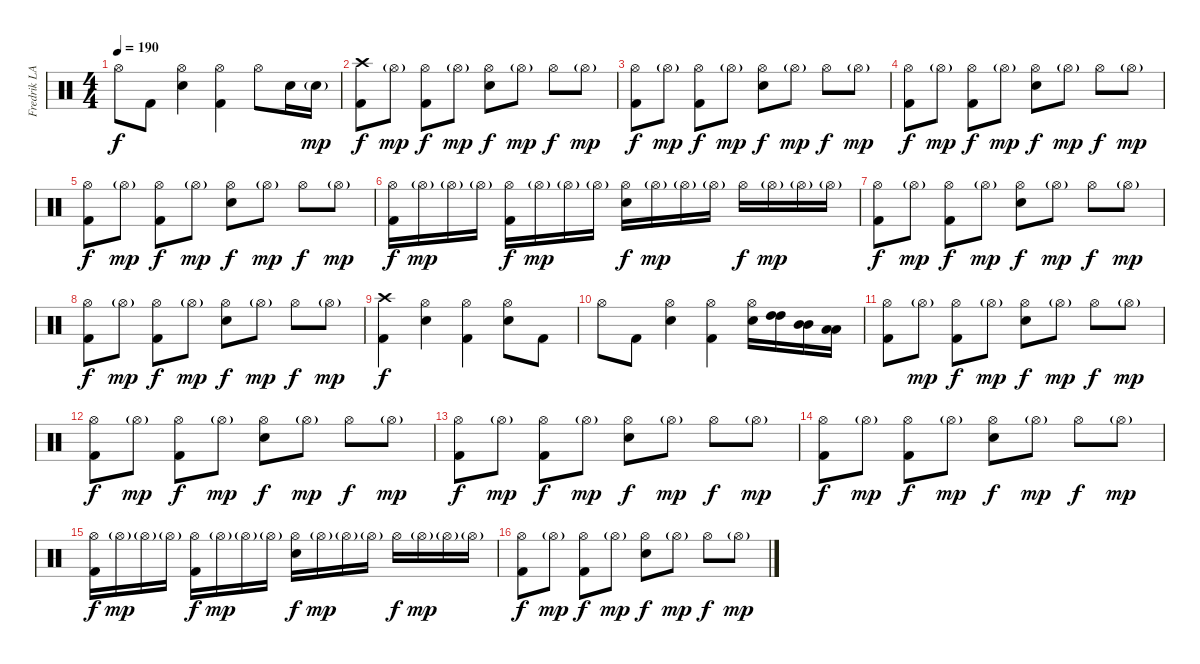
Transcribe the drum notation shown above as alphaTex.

\track ("Fredrik LARZON" "Fredrik LA") {instrument percussion}
\staff {score}
\articulation defaults
\ts (4 4)
\tempo 190
\clef neutral
\ks c "Hi-Hat (open)".8{dy f} "Kick (hit) 2".8
("Hi-Hat (open)" "Electric Snare (hit)").4 ("Hi-Hat (open)" "Kick (hit) 2").4 "Hi-Hat (open)".8 "Electric Snare (hit)".16 "Electric Snare (hit)"{g}.16{dy mp} |
("Crash high (hit)" "Kick (hit) 2").8{dy f} "Hi-Hat (open)"{g}.8{dy mp} ("Hi-Hat (open)" "Kick (hit) 2").8{dy f} "Hi-Hat (open)"{g}.8{dy mp} ("Hi-Hat (open)" "Electric Snare (hit)").8{dy f} "Hi-Hat (open)"{g}.8{dy mp} "Hi-Hat (open)".8{dy f} "Hi-Hat (open)"{g}.8{dy mp} |
("Hi-Hat (open)" "Kick (hit) 2").8{dy f} "Hi-Hat (open)"{g}.8{dy mp} ("Hi-Hat (open)" "Kick (hit) 2").8{dy f} "Hi-Hat (open)"{g}.8{dy mp} ("Hi-Hat (open)" "Electric Snare (hit)").8{dy f} "Hi-Hat (open)"{g}.8{dy mp} "Hi-Hat (open)".8{dy f} "Hi-Hat (open)"{g}.8{dy mp} |
("Hi-Hat (open)" "Kick (hit) 2").8{dy f} "Hi-Hat (open)"{g}.8{dy mp} ("Hi-Hat (open)" "Kick (hit) 2").8{dy f} "Hi-Hat (open)"{g}.8{dy mp} ("Hi-Hat (open)" "Electric Snare (hit)").8{dy f} "Hi-Hat (open)"{g}.8{dy mp} "Hi-Hat (open)".8{dy f} "Hi-Hat (open)"{g}.8{dy mp} |
("Hi-Hat (open)" "Kick (hit) 2").8{dy f} "Hi-Hat (open)"{g}.8{dy mp} ("Hi-Hat (open)" "Kick (hit) 2").8{dy f} "Hi-Hat (open)"{g}.8{dy mp} ("Hi-Hat (open)" "Electric Snare (hit)").8{dy f} "Hi-Hat (open)"{g}.8{dy mp} "Hi-Hat (open)".8{dy f} "Hi-Hat (open)"{g}.8{dy mp} |
("Hi-Hat (open)" "Kick (hit) 2").16{dy f} "Hi-Hat (open)"{g}.16{dy mp} "Hi-Hat (open)"{g}.16 "Hi-Hat (open)"{g}.16 ("Hi-Hat (open)" "Kick (hit) 2").16{dy f} "Hi-Hat (open)"{g}.16{dy mp} "Hi-Hat (open)"{g}.16 "Hi-Hat (open)"{g}.16 ("Hi-Hat (open)" "Electric Snare (hit)").16{dy f} "Hi-Hat (open)"{g}.16{dy mp} "Hi-Hat (open)"{g}.16 "Hi-Hat (open)"{g}.16 "Hi-Hat (open)".16{dy f} "Hi-Hat (open)"{g}.16{dy mp} "Hi-Hat (open)"{g}.16 "Hi-Hat (open)"{g}.16 |
("Hi-Hat (open)" "Kick (hit) 2").8{dy f} "Hi-Hat (open)"{g}.8{dy mp} ("Hi-Hat (open)" "Kick (hit) 2").8{dy f} "Hi-Hat (open)"{g}.8{dy mp} ("Hi-Hat (open)" "Electric Snare (hit)").8{dy f} "Hi-Hat (open)"{g}.8{dy mp} "Hi-Hat (open)".8{dy f} "Hi-Hat (open)"{g}.8{dy mp} |
("Hi-Hat (open)" "Kick (hit) 2").8{dy f} "Hi-Hat (open)"{g}.8{dy mp} ("Hi-Hat (open)" "Kick (hit) 2").8{dy f} "Hi-Hat (open)"{g}.8{dy mp} ("Hi-Hat (open)" "Electric Snare (hit)").8{dy f} "Hi-Hat (open)"{g}.8{dy mp} "Hi-Hat (open)".8{dy f} "Hi-Hat (open)"{g}.8{dy mp} |
("Crash high (hit)" "Kick (hit) 2").4{dy f} ("Hi-Hat (open)" "Electric Snare (hit)").4 ("Hi-Hat (open)" "Kick (hit) 2").4 ("Hi-Hat (open)" "Electric Snare (hit)").8 "Kick (hit) 2".8 |
"Hi-Hat (open)".8 "Kick (hit) 2".8 ("Hi-Hat (open)" "Electric Snare (hit)").4 ("Hi-Hat (open)" "Kick (hit) 2").4 ("Hi-Hat (open)" "Electric Snare (hit)").16 ("High Tom (hit)" "High Tom (hit)").16 ("Mid Tom (hit)" "Mid Tom (hit)").16 ("Low Tom (hit)" "Low Tom (hit)").16 |
("Hi-Hat (open)" "Kick (hit) 2").8 "Hi-Hat (open)"{g}.8{dy mp} ("Hi-Hat (open)" "Kick (hit) 2").8{dy f} "Hi-Hat (open)"{g}.8{dy mp} ("Hi-Hat (open)" "Electric Snare (hit)").8{dy f} "Hi-Hat (open)"{g}.8{dy mp} "Hi-Hat (open)".8{dy f} "Hi-Hat (open)"{g}.8{dy mp} |
("Hi-Hat (open)" "Kick (hit) 2").8{dy f} "Hi-Hat (open)"{g}.8{dy mp} ("Hi-Hat (open)" "Kick (hit) 2").8{dy f} "Hi-Hat (open)"{g}.8{dy mp} ("Hi-Hat (open)" "Electric Snare (hit)").8{dy f} "Hi-Hat (open)"{g}.8{dy mp} "Hi-Hat (open)".8{dy f} "Hi-Hat (open)"{g}.8{dy mp} |
("Hi-Hat (open)" "Kick (hit) 2").8{dy f} "Hi-Hat (open)"{g}.8{dy mp} ("Hi-Hat (open)" "Kick (hit) 2").8{dy f} "Hi-Hat (open)"{g}.8{dy mp} ("Hi-Hat (open)" "Electric Snare (hit)").8{dy f} "Hi-Hat (open)"{g}.8{dy mp} "Hi-Hat (open)".8{dy f} "Hi-Hat (open)"{g}.8{dy mp} |
("Hi-Hat (open)" "Kick (hit) 2").8{dy f} "Hi-Hat (open)"{g}.8{dy mp} ("Hi-Hat (open)" "Kick (hit) 2").8{dy f} "Hi-Hat (open)"{g}.8{dy mp} ("Hi-Hat (open)" "Electric Snare (hit)").8{dy f} "Hi-Hat (open)"{g}.8{dy mp} "Hi-Hat (open)".8{dy f} "Hi-Hat (open)"{g}.8{dy mp} |
("Hi-Hat (open)" "Kick (hit) 2").16{dy f} "Hi-Hat (open)"{g}.16{dy mp} "Hi-Hat (open)"{g}.16 "Hi-Hat (open)"{g}.16 ("Hi-Hat (open)" "Kick (hit) 2").16{dy f} "Hi-Hat (open)"{g}.16{dy mp} "Hi-Hat (open)"{g}.16 "Hi-Hat (open)"{g}.16 ("Hi-Hat (open)" "Electric Snare (hit)").16{dy f} "Hi-Hat (open)"{g}.16{dy mp} "Hi-Hat (open)"{g}.16 "Hi-Hat (open)"{g}.16 "Hi-Hat (open)".16{dy f} "Hi-Hat (open)"{g}.16{dy mp} "Hi-Hat (open)"{g}.16 "Hi-Hat (open)"{g}.16 |
("Hi-Hat (open)" "Kick (hit) 2").8{dy f} "Hi-Hat (open)"{g}.8{dy mp} ("Hi-Hat (open)" "Kick (hit) 2").8{dy f} "Hi-Hat (open)"{g}.8{dy mp} ("Hi-Hat (open)" "Electric Snare (hit)").8{dy f} "Hi-Hat (open)"{g}.8{dy mp} "Hi-Hat (open)".8{dy f} "Hi-Hat (open)"{g}.8{dy mp}
